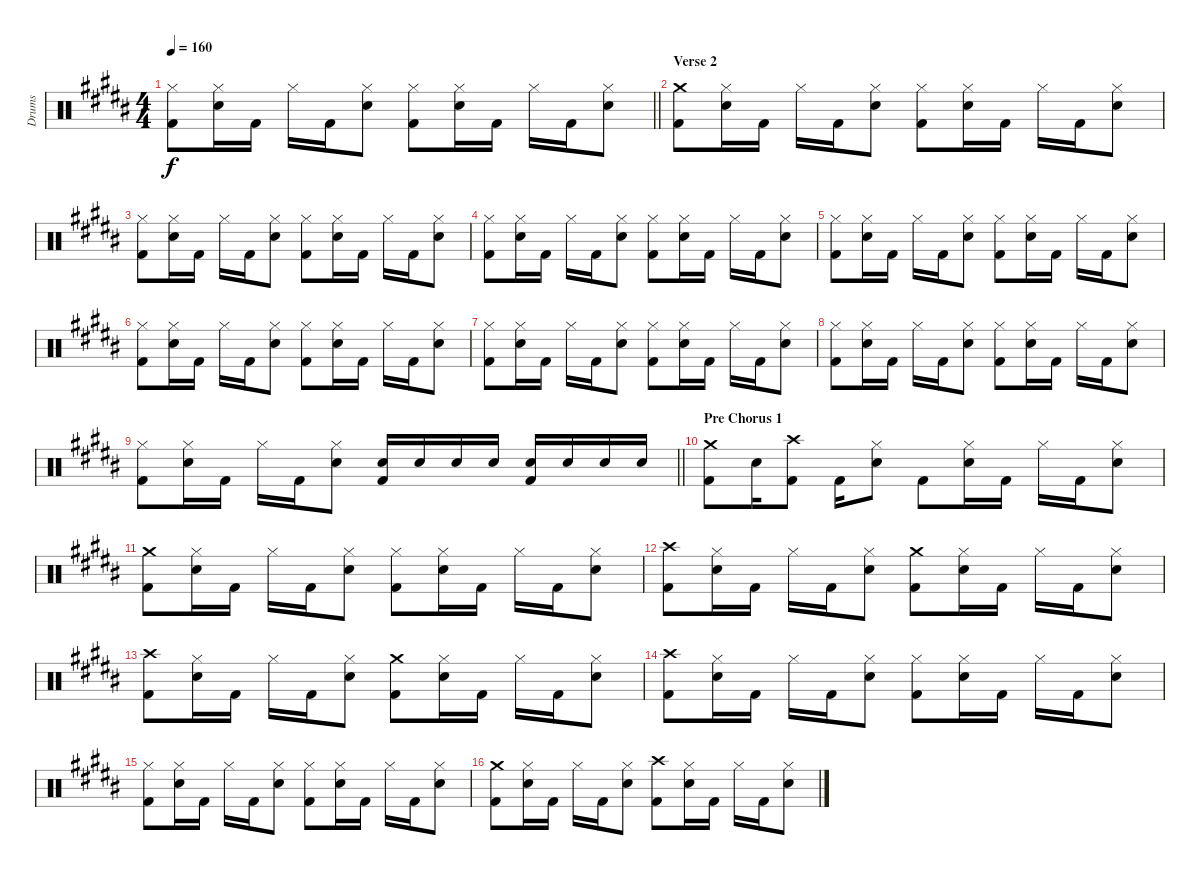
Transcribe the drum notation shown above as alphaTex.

\track ("Drums" "Drums") {instrument percussion}
\staff {score}
\articulation defaults
\ts (4 4)
\tempo 160
\clef neutral
\barLineRight lightlight
\ks g#minor
("Hi-Hat (closed)" "Kick (hit) 2").8{dy f} ("Hi-Hat (closed)" "Electric Snare (hit)").16 "Kick (hit) 2".16 "Hi-Hat (closed)".16 "Kick (hit) 2".16 ("Hi-Hat (closed)" "Electric Snare (hit)").8 ("Hi-Hat (closed)" "Kick (hit) 2").8 ("Hi-Hat (closed)" "Electric Snare (hit)").16 "Kick (hit) 2".16 "Hi-Hat (closed)".16 "Kick (hit) 2".16 ("Hi-Hat (closed)" "Electric Snare (hit)").8 |
\section ("" "Verse 2")
("Crash medium (hit)" "Kick (hit) 2").8 ("Hi-Hat (closed)" "Electric Snare (hit)").16 "Kick (hit) 2".16 "Hi-Hat (closed)".16 "Kick (hit) 2".16 ("Hi-Hat (closed)" "Electric Snare (hit)").8 ("Hi-Hat (closed)" "Kick (hit) 2").8 ("Hi-Hat (closed)" "Electric Snare (hit)").16 "Kick (hit) 2".16 "Hi-Hat (closed)".16 "Kick (hit) 2".16 ("Hi-Hat (closed)" "Electric Snare (hit)").8 |
("Hi-Hat (closed)" "Kick (hit) 2").8 ("Hi-Hat (closed)" "Electric Snare (hit)").16 "Kick (hit) 2".16 "Hi-Hat (closed)".16 "Kick (hit) 2".16 ("Hi-Hat (closed)" "Electric Snare (hit)").8 ("Hi-Hat (closed)" "Kick (hit) 2").8 ("Hi-Hat (closed)" "Electric Snare (hit)").16 "Kick (hit) 2".16 "Hi-Hat (closed)".16 "Kick (hit) 2".16 ("Hi-Hat (closed)" "Electric Snare (hit)").8 |
("Hi-Hat (closed)" "Kick (hit) 2").8 ("Hi-Hat (closed)" "Electric Snare (hit)").16 "Kick (hit) 2".16 "Hi-Hat (closed)".16 "Kick (hit) 2".16 ("Hi-Hat (closed)" "Electric Snare (hit)").8 ("Hi-Hat (closed)" "Kick (hit) 2").8 ("Hi-Hat (closed)" "Electric Snare (hit)").16 "Kick (hit) 2".16 "Hi-Hat (closed)".16 "Kick (hit) 2".16 ("Hi-Hat (closed)" "Electric Snare (hit)").8 |
("Hi-Hat (closed)" "Kick (hit) 2").8 ("Hi-Hat (closed)" "Electric Snare (hit)").16 "Kick (hit) 2".16 "Hi-Hat (closed)".16 "Kick (hit) 2".16 ("Hi-Hat (closed)" "Electric Snare (hit)").8 ("Hi-Hat (closed)" "Kick (hit) 2").8 ("Hi-Hat (closed)" "Electric Snare (hit)").16 "Kick (hit) 2".16 "Hi-Hat (closed)".16 "Kick (hit) 2".16 ("Hi-Hat (closed)" "Electric Snare (hit)").8 |
("Hi-Hat (closed)" "Kick (hit) 2").8 ("Hi-Hat (closed)" "Electric Snare (hit)").16 "Kick (hit) 2".16 "Hi-Hat (closed)".16 "Kick (hit) 2".16 ("Hi-Hat (closed)" "Electric Snare (hit)").8 ("Hi-Hat (closed)" "Kick (hit) 2").8 ("Hi-Hat (closed)" "Electric Snare (hit)").16 "Kick (hit) 2".16 "Hi-Hat (closed)".16 "Kick (hit) 2".16 ("Hi-Hat (closed)" "Electric Snare (hit)").8 |
("Hi-Hat (closed)" "Kick (hit) 2").8 ("Hi-Hat (closed)" "Electric Snare (hit)").16 "Kick (hit) 2".16 "Hi-Hat (closed)".16 "Kick (hit) 2".16 ("Hi-Hat (closed)" "Electric Snare (hit)").8 ("Hi-Hat (closed)" "Kick (hit) 2").8 ("Hi-Hat (closed)" "Electric Snare (hit)").16 "Kick (hit) 2".16 "Hi-Hat (closed)".16 "Kick (hit) 2".16 ("Hi-Hat (closed)" "Electric Snare (hit)").8 |
("Hi-Hat (closed)" "Kick (hit) 2").8 ("Hi-Hat (closed)" "Electric Snare (hit)").16 "Kick (hit) 2".16 "Hi-Hat (closed)".16 "Kick (hit) 2".16 ("Hi-Hat (closed)" "Electric Snare (hit)").8 ("Hi-Hat (closed)" "Kick (hit) 2").8 ("Hi-Hat (closed)" "Electric Snare (hit)").16 "Kick (hit) 2".16 "Hi-Hat (closed)".16 "Kick (hit) 2".16 ("Hi-Hat (closed)" "Electric Snare (hit)").8 |
\barLineRight lightlight
("Hi-Hat (closed)" "Kick (hit) 2").8 ("Hi-Hat (closed)" "Electric Snare (hit)").16 "Kick (hit) 2".16 "Hi-Hat (closed)".16 "Kick (hit) 2".16 ("Hi-Hat (closed)" "Electric Snare (hit)").8 ("Electric Snare (hit)" "Kick (hit) 2").16 "Electric Snare (hit)".16 "Electric Snare (hit)".16 "Electric Snare (hit)".16 ("Electric Snare (hit)" "Kick (hit) 2").16 "Electric Snare (hit)".16 "Electric Snare (hit)".16 "Electric Snare (hit)".16 |
\section ("" "Pre Chorus 1")
("Crash medium (hit)" "Kick (hit) 2").8 "Electric Snare (hit)".16 ("Crash high (hit)" "Kick (hit) 2").8 "Kick (hit) 2".16 ("Hi-Hat (closed)" "Electric Snare (hit)").8 "Kick (hit) 2".8 ("Hi-Hat (closed)" "Electric Snare (hit)").16 "Kick (hit) 2".16 "Hi-Hat (closed)".16 "Kick (hit) 2".16 ("Hi-Hat (closed)" "Electric Snare (hit)").8 |
("Crash medium (hit)" "Kick (hit) 2").8 ("Hi-Hat (closed)" "Electric Snare (hit)").16 "Kick (hit) 2".16 "Hi-Hat (closed)".16 "Kick (hit) 2".16 ("Hi-Hat (closed)" "Electric Snare (hit)").8 ("Hi-Hat (closed)" "Kick (hit) 2").8 ("Hi-Hat (closed)" "Electric Snare (hit)").16 "Kick (hit) 2".16 "Hi-Hat (closed)".16 "Kick (hit) 2".16 ("Hi-Hat (closed)" "Electric Snare (hit)").8 |
("Crash high (hit)" "Kick (hit) 2").8 ("Hi-Hat (closed)" "Electric Snare (hit)").16 "Kick (hit) 2".16 "Hi-Hat (closed)".16 "Kick (hit) 2".16 ("Hi-Hat (closed)" "Electric Snare (hit)").8 ("Crash medium (hit)" "Kick (hit) 2").8 ("Hi-Hat (closed)" "Electric Snare (hit)").16 "Kick (hit) 2".16 "Hi-Hat (closed)".16 "Kick (hit) 2".16 ("Hi-Hat (closed)" "Electric Snare (hit)").8 |
("Crash high (hit)" "Kick (hit) 2").8 ("Hi-Hat (closed)" "Electric Snare (hit)").16 "Kick (hit) 2".16 "Hi-Hat (closed)".16 "Kick (hit) 2".16 ("Hi-Hat (closed)" "Electric Snare (hit)").8 ("Crash medium (hit)" "Kick (hit) 2").8 ("Hi-Hat (closed)" "Electric Snare (hit)").16 "Kick (hit) 2".16 "Hi-Hat (closed)".16 "Kick (hit) 2".16 ("Hi-Hat (closed)" "Electric Snare (hit)").8 |
("Crash high (hit)" "Kick (hit) 2").8 ("Hi-Hat (closed)" "Electric Snare (hit)").16 "Kick (hit) 2".16 "Hi-Hat (closed)".16 "Kick (hit) 2".16 ("Hi-Hat (closed)" "Electric Snare (hit)").8 ("Hi-Hat (closed)" "Kick (hit) 2").8 ("Hi-Hat (closed)" "Electric Snare (hit)").16 "Kick (hit) 2".16 "Hi-Hat (closed)".16 "Kick (hit) 2".16 ("Hi-Hat (closed)" "Electric Snare (hit)").8 |
("Hi-Hat (closed)" "Kick (hit) 2").8 ("Hi-Hat (closed)" "Electric Snare (hit)").16 "Kick (hit) 2".16 "Hi-Hat (closed)".16 "Kick (hit) 2".16 ("Hi-Hat (closed)" "Electric Snare (hit)").8 ("Hi-Hat (closed)" "Kick (hit) 2").8 ("Hi-Hat (closed)" "Electric Snare (hit)").16 "Kick (hit) 2".16 "Hi-Hat (closed)".16 "Kick (hit) 2".16 ("Hi-Hat (closed)" "Electric Snare (hit)").8 |
("Crash medium (hit)" "Kick (hit) 2").8 ("Hi-Hat (closed)" "Electric Snare (hit)").16 "Kick (hit) 2".16 "Hi-Hat (closed)".16 "Kick (hit) 2".16 ("Hi-Hat (closed)" "Electric Snare (hit)").8 ("Crash high (hit)" "Kick (hit) 2").8 ("Hi-Hat (closed)" "Electric Snare (hit)").16 "Kick (hit) 2".16 "Hi-Hat (closed)".16 "Kick (hit) 2".16 ("Hi-Hat (closed)" "Electric Snare (hit)").8
